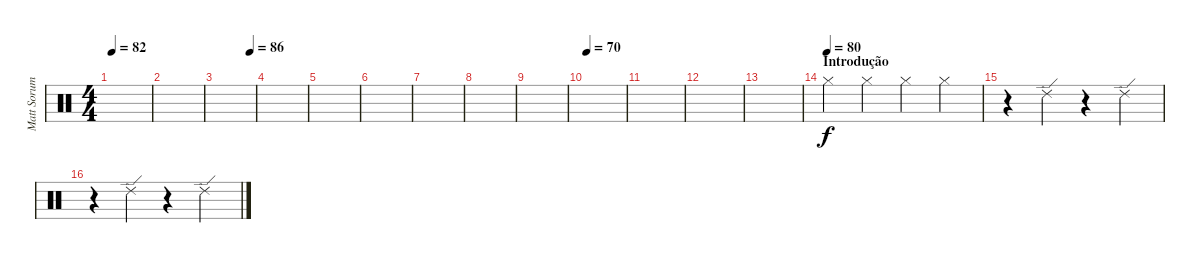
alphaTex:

\track ("Matt Sorum" "Matt Sorum") {instrument percussion}
\staff {score}
\articulation defaults
\ts (4 4)
\tempo 82
\clef neutral
\ks c
|
|
\tempo (86 0.875)
|
|
|
|
|
|
|
\tempo 70
|
|
|
|
\section ("" "Introdução")
\tempo (80)
"Hi-Hat (closed)".4 "Hi-Hat (closed)".4 "Hi-Hat (closed)".4 "Hi-Hat (closed)".4 |
r.4 "Ride (edge) 2".4 r.4 "Ride (edge) 2".4 |
r.4 "Ride (edge) 2".4 r.4 "Ride (edge) 2".4
